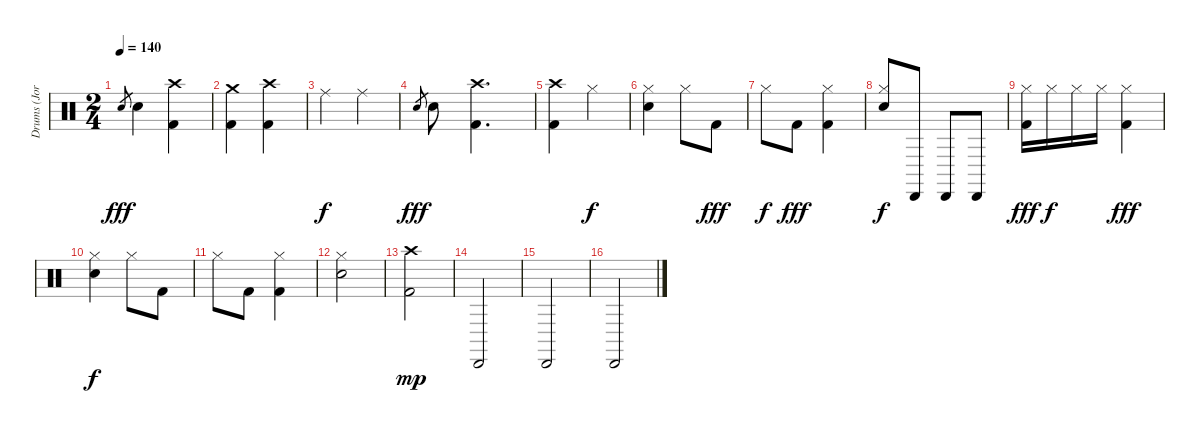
\track ("Drums (Jordan Hastings)" "Drums (Jor") {instrument percussion}
\staff {score}
\articulation defaults
\ts (2 4)
\tempo 140
\clef neutral
\ks c "Electric Snare (hit)".8{gr dy fff} "Electric Snare (hit)".4
("Crash high (hit)" "Kick (hit) 2").4 |
("Crash medium (hit)" "Kick (hit) 2").4 ("Crash high (hit)" "Kick (hit) 2").4 |
"Ride (middle)".4{dy f} "Ride (middle)".4 |
"Electric Snare (hit)".8{gr dy fff} "Electric Snare (hit)".8 ("Crash high (hit)" "Kick (hit) 2").4{d} |
("Crash high (hit)" "Kick (hit) 2").4 "Hi-Hat (closed)".4{dy f} |
("Hi-Hat (closed)" "Electric Snare (hit)").4 "Hi-Hat (closed)".8 "Kick (hit) 2".8{dy fff} |
"Hi-Hat (closed)".8{dy f} "Kick (hit) 2".8{dy fff} ("Hi-Hat (closed)" "Kick (hit) 2").4 |
("Hi-Hat (closed)" "Electric Snare (hit)").8{dy f} "Cabasa (hit)".8 "Cabasa (hit)".8 "Cabasa (hit)".8 |
("Hi-Hat (closed)" "Kick (hit) 2").16{dy fff} "Hi-Hat (closed)".16{dy f} "Hi-Hat (closed)".16 "Hi-Hat (closed)".16 ("Hi-Hat (closed)" "Kick (hit) 2").4{dy fff} |
("Hi-Hat (closed)" "Electric Snare (hit)").4{dy f} "Hi-Hat (closed)".8 "Kick (hit) 2".8 |
"Hi-Hat (closed)".8 "Kick (hit) 2".8 ("Hi-Hat (closed)" "Kick (hit) 2").4 |
("Hi-Hat (closed)" "Electric Snare (hit)").2 |
("Crash high (hit)" "Kick (hit) 2").2{dy mp} |
"Cabasa (hit)".2 |
"Cabasa (hit)".2 |
"Cabasa (hit)".2
